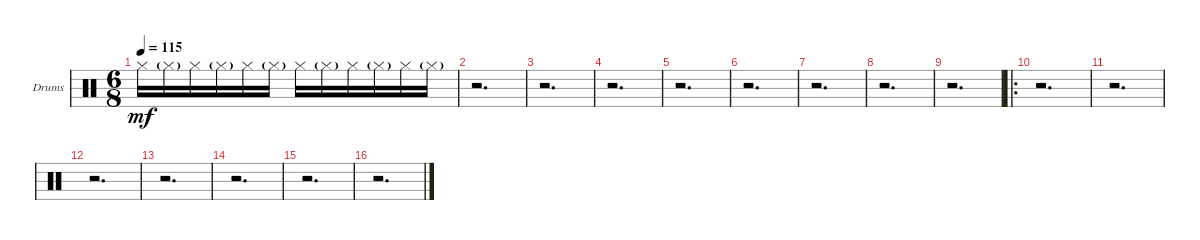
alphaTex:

\bracketExtendMode groupsimilarinstruments
\firstSystemTrackNameOrientation horizontal
\otherSystemsTrackNameOrientation horizontal
\track ("Drumkit" "Drums") {instrument percussion}
\staff {score}
\articulation defaults
\ts (6 8)
\tempo 115
\clef neutral
\ks c "Hi-Hat (closed)".16{dy mf} "Hi-Hat (closed)"{g}.16 "Hi-Hat (closed)".16 "Hi-Hat (closed)"{g}.16 "Hi-Hat (closed)".16 "Hi-Hat (closed)"{g}.16 "Hi-Hat (closed)".16 "Hi-Hat (closed)"{g}.16 "Hi-Hat (closed)".16 "Hi-Hat (closed)"{g}.16 "Hi-Hat (closed)".16 "Hi-Hat (closed)"{g}.16
|
r.2{d} |
r.2{d} |
r.2{d} |
r.2{d} |
r.2{d} |
r.2{d} |
r.2{d} |
r.2{d} |
\ro
r.2{d} |
r.2{d} |
r.2{d} |
r.2{d} |
r.2{d} |
r.2{d} |
r.2{d}
